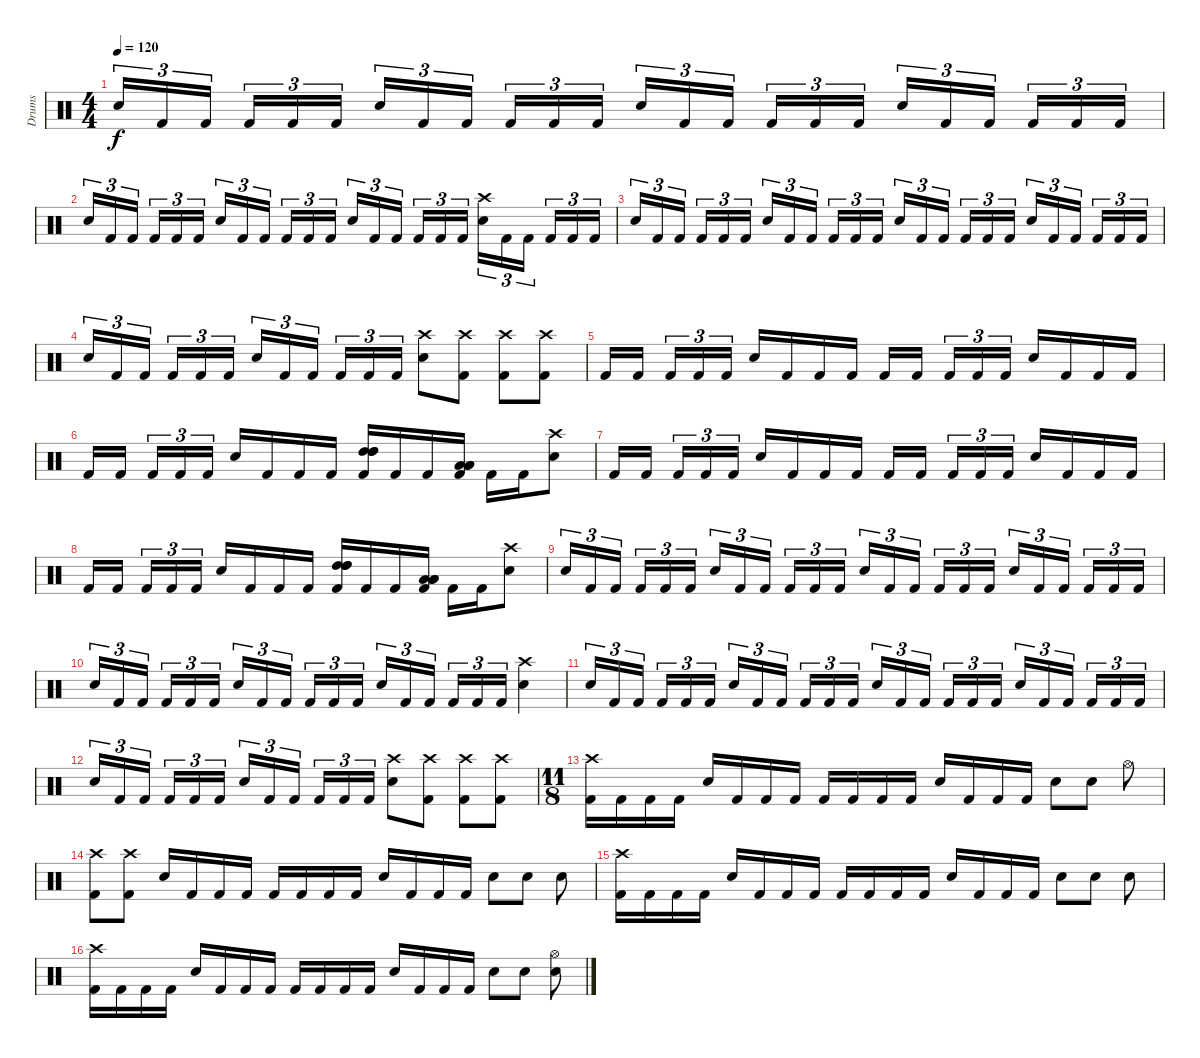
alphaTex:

\track ("Drums" "Drums") {instrument percussion}
\staff {score}
\articulation defaults
\ts (4 4)
\tempo 120
\clef neutral
\ks c "Electric Snare (hit)".16{tu (3 2) dy f} "Kick (hit) 2".16{tu (3 2)} "Kick (hit) 2".16{tu (3 2) beam splitsecondary} "Kick (hit) 2".16{tu (3 2)} "Kick (hit) 2".16{tu (3 2)} "Kick (hit) 2".16{tu (3 2)} "Electric Snare (hit)".16{tu (3 2)} "Kick (hit) 2".16{tu (3 2)} "Kick (hit) 2".16{tu (3 2) beam splitsecondary} "Kick (hit) 2".16{tu (3 2)} "Kick (hit) 2".16{tu (3 2)} "Kick (hit) 2".16{tu (3 2)} "Electric Snare (hit)".16{tu (3 2)} "Kick (hit) 2".16{tu (3 2)} "Kick (hit) 2".16{tu (3 2) beam splitsecondary} "Kick (hit) 2".16{tu (3 2)} "Kick (hit) 2".16{tu (3 2)} "Kick (hit) 2".16{tu (3 2)} "Electric Snare (hit)".16{tu (3 2)} "Kick (hit) 2".16{tu (3 2)} "Kick (hit) 2".16{tu (3 2) beam splitsecondary} "Kick (hit) 2".16{tu (3 2)} "Kick (hit) 2".16{tu (3 2)} "Kick (hit) 2".16{tu (3 2)}
|
"Electric Snare (hit)".16{tu (3 2)} "Kick (hit) 2".16{tu (3 2)} "Kick (hit) 2".16{tu (3 2) beam splitsecondary} "Kick (hit) 2".16{tu (3 2)} "Kick (hit) 2".16{tu (3 2)} "Kick (hit) 2".16{tu (3 2)} "Electric Snare (hit)".16{tu (3 2)} "Kick (hit) 2".16{tu (3 2)} "Kick (hit) 2".16{tu (3 2) beam splitsecondary} "Kick (hit) 2".16{tu (3 2)} "Kick (hit) 2".16{tu (3 2)} "Kick (hit) 2".16{tu (3 2)} "Electric Snare (hit)".16{tu (3 2)} "Kick (hit) 2".16{tu (3 2)} "Kick (hit) 2".16{tu (3 2) beam splitsecondary} "Kick (hit) 2".16{tu (3 2)} "Kick (hit) 2".16{tu (3 2)} "Kick (hit) 2".16{tu (3 2)} ("Crash high (hit)" "Electric Snare (hit)").16{tu (3 2)} "Kick (hit) 2".16{tu (3 2)} "Kick (hit) 2".16{tu (3 2) beam splitsecondary} "Kick (hit) 2".16{tu (3 2)} "Kick (hit) 2".16{tu (3 2)} "Kick (hit) 2".16{tu (3 2)} |
"Electric Snare (hit)".16{tu (3 2)} "Kick (hit) 2".16{tu (3 2)} "Kick (hit) 2".16{tu (3 2) beam splitsecondary} "Kick (hit) 2".16{tu (3 2)} "Kick (hit) 2".16{tu (3 2)} "Kick (hit) 2".16{tu (3 2)} "Electric Snare (hit)".16{tu (3 2)} "Kick (hit) 2".16{tu (3 2)} "Kick (hit) 2".16{tu (3 2) beam splitsecondary} "Kick (hit) 2".16{tu (3 2)} "Kick (hit) 2".16{tu (3 2)} "Kick (hit) 2".16{tu (3 2)} "Electric Snare (hit)".16{tu (3 2)} "Kick (hit) 2".16{tu (3 2)} "Kick (hit) 2".16{tu (3 2) beam splitsecondary} "Kick (hit) 2".16{tu (3 2)} "Kick (hit) 2".16{tu (3 2)} "Kick (hit) 2".16{tu (3 2)} "Electric Snare (hit)".16{tu (3 2)} "Kick (hit) 2".16{tu (3 2)} "Kick (hit) 2".16{tu (3 2) beam splitsecondary} "Kick (hit) 2".16{tu (3 2)} "Kick (hit) 2".16{tu (3 2)} "Kick (hit) 2".16{tu (3 2)} |
"Electric Snare (hit)".16{tu (3 2)} "Kick (hit) 2".16{tu (3 2)} "Kick (hit) 2".16{tu (3 2) beam splitsecondary} "Kick (hit) 2".16{tu (3 2)} "Kick (hit) 2".16{tu (3 2)} "Kick (hit) 2".16{tu (3 2)} "Electric Snare (hit)".16{tu (3 2)} "Kick (hit) 2".16{tu (3 2)} "Kick (hit) 2".16{tu (3 2) beam splitsecondary} "Kick (hit) 2".16{tu (3 2)} "Kick (hit) 2".16{tu (3 2)} "Kick (hit) 2".16{tu (3 2)} ("Crash high (hit)" "Electric Snare (hit)").8 ("Crash high (hit)" "Kick (hit) 2").8 ("Crash high (hit)" "Kick (hit) 2").8 ("Crash high (hit)" "Kick (hit) 2").8 |
"Kick (hit) 2".16 "Kick (hit) 2".16{beam splitsecondary} "Kick (hit) 2".16{tu (3 2)} "Kick (hit) 2".16{tu (3 2)} "Kick (hit) 2".16{tu (3 2)} "Electric Snare (hit)".16 "Kick (hit) 2".16 "Kick (hit) 2".16 "Kick (hit) 2".16 "Kick (hit) 2".16 "Kick (hit) 2".16{beam splitsecondary} "Kick (hit) 2".16{tu (3 2)} "Kick (hit) 2".16{tu (3 2)} "Kick (hit) 2".16{tu (3 2)} "Electric Snare (hit)".16 "Kick (hit) 2".16 "Kick (hit) 2".16 "Kick (hit) 2".16 |
"Kick (hit) 2".16 "Kick (hit) 2".16{beam splitsecondary} "Kick (hit) 2".16{tu (3 2)} "Kick (hit) 2".16{tu (3 2)} "Kick (hit) 2".16{tu (3 2)} "Electric Snare (hit)".16 "Kick (hit) 2".16 "Kick (hit) 2".16 "Kick (hit) 2".16 ("High Tom (hit)" "High Tom (hit)" "High Tom (hit)" "Kick (hit) 2").16 "Kick (hit) 2".16 "Kick (hit) 2".16 ("Low Tom (hit)" "Low Tom (hit)" "Low Tom (hit)" "Kick (hit) 2").16 "Kick (hit) 2".16 "Kick (hit) 2".16 ("Crash high (hit)" "Electric Snare (hit)").8 |
"Kick (hit) 2".16 "Kick (hit) 2".16{beam splitsecondary} "Kick (hit) 2".16{tu (3 2)} "Kick (hit) 2".16{tu (3 2)} "Kick (hit) 2".16{tu (3 2)} "Electric Snare (hit)".16 "Kick (hit) 2".16 "Kick (hit) 2".16 "Kick (hit) 2".16 "Kick (hit) 2".16 "Kick (hit) 2".16{beam splitsecondary} "Kick (hit) 2".16{tu (3 2)} "Kick (hit) 2".16{tu (3 2)} "Kick (hit) 2".16{tu (3 2)} "Electric Snare (hit)".16 "Kick (hit) 2".16 "Kick (hit) 2".16 "Kick (hit) 2".16 |
"Kick (hit) 2".16 "Kick (hit) 2".16{beam splitsecondary} "Kick (hit) 2".16{tu (3 2)} "Kick (hit) 2".16{tu (3 2)} "Kick (hit) 2".16{tu (3 2)} "Electric Snare (hit)".16 "Kick (hit) 2".16 "Kick (hit) 2".16 "Kick (hit) 2".16 ("High Tom (hit)" "High Tom (hit)" "High Tom (hit)" "Kick (hit) 2").16 "Kick (hit) 2".16 "Kick (hit) 2".16 ("Low Tom (hit)" "Low Tom (hit)" "Low Tom (hit)" "Kick (hit) 2").16 "Kick (hit) 2".16 "Kick (hit) 2".16 ("Crash high (hit)" "Electric Snare (hit)").8 |
"Electric Snare (hit)".16{tu (3 2)} "Kick (hit) 2".16{tu (3 2)} "Kick (hit) 2".16{tu (3 2) beam splitsecondary} "Kick (hit) 2".16{tu (3 2)} "Kick (hit) 2".16{tu (3 2)} "Kick (hit) 2".16{tu (3 2)} "Electric Snare (hit)".16{tu (3 2)} "Kick (hit) 2".16{tu (3 2)} "Kick (hit) 2".16{tu (3 2) beam splitsecondary} "Kick (hit) 2".16{tu (3 2)} "Kick (hit) 2".16{tu (3 2)} "Kick (hit) 2".16{tu (3 2)} "Electric Snare (hit)".16{tu (3 2)} "Kick (hit) 2".16{tu (3 2)} "Kick (hit) 2".16{tu (3 2) beam splitsecondary} "Kick (hit) 2".16{tu (3 2)} "Kick (hit) 2".16{tu (3 2)} "Kick (hit) 2".16{tu (3 2)} "Electric Snare (hit)".16{tu (3 2)} "Kick (hit) 2".16{tu (3 2)} "Kick (hit) 2".16{tu (3 2) beam splitsecondary} "Kick (hit) 2".16{tu (3 2)} "Kick (hit) 2".16{tu (3 2)} "Kick (hit) 2".16{tu (3 2)} |
"Electric Snare (hit)".16{tu (3 2)} "Kick (hit) 2".16{tu (3 2)} "Kick (hit) 2".16{tu (3 2) beam splitsecondary} "Kick (hit) 2".16{tu (3 2)} "Kick (hit) 2".16{tu (3 2)} "Kick (hit) 2".16{tu (3 2)} "Electric Snare (hit)".16{tu (3 2)} "Kick (hit) 2".16{tu (3 2)} "Kick (hit) 2".16{tu (3 2) beam splitsecondary} "Kick (hit) 2".16{tu (3 2)} "Kick (hit) 2".16{tu (3 2)} "Kick (hit) 2".16{tu (3 2)} "Electric Snare (hit)".16{tu (3 2)} "Kick (hit) 2".16{tu (3 2)} "Kick (hit) 2".16{tu (3 2) beam splitsecondary} "Kick (hit) 2".16{tu (3 2)} "Kick (hit) 2".16{tu (3 2)} "Kick (hit) 2".16{tu (3 2)} ("Crash high (hit)" "Electric Snare (hit)").4 |
"Electric Snare (hit)".16{tu (3 2)} "Kick (hit) 2".16{tu (3 2)} "Kick (hit) 2".16{tu (3 2) beam splitsecondary} "Kick (hit) 2".16{tu (3 2)} "Kick (hit) 2".16{tu (3 2)} "Kick (hit) 2".16{tu (3 2)} "Electric Snare (hit)".16{tu (3 2)} "Kick (hit) 2".16{tu (3 2)} "Kick (hit) 2".16{tu (3 2) beam splitsecondary} "Kick (hit) 2".16{tu (3 2)} "Kick (hit) 2".16{tu (3 2)} "Kick (hit) 2".16{tu (3 2)} "Electric Snare (hit)".16{tu (3 2)} "Kick (hit) 2".16{tu (3 2)} "Kick (hit) 2".16{tu (3 2) beam splitsecondary} "Kick (hit) 2".16{tu (3 2)} "Kick (hit) 2".16{tu (3 2)} "Kick (hit) 2".16{tu (3 2)} "Electric Snare (hit)".16{tu (3 2)} "Kick (hit) 2".16{tu (3 2)} "Kick (hit) 2".16{tu (3 2) beam splitsecondary} "Kick (hit) 2".16{tu (3 2)} "Kick (hit) 2".16{tu (3 2)} "Kick (hit) 2".16{tu (3 2)} |
"Electric Snare (hit)".16{tu (3 2)} "Kick (hit) 2".16{tu (3 2)} "Kick (hit) 2".16{tu (3 2) beam splitsecondary} "Kick (hit) 2".16{tu (3 2)} "Kick (hit) 2".16{tu (3 2)} "Kick (hit) 2".16{tu (3 2)} "Electric Snare (hit)".16{tu (3 2)} "Kick (hit) 2".16{tu (3 2)} "Kick (hit) 2".16{tu (3 2) beam splitsecondary} "Kick (hit) 2".16{tu (3 2)} "Kick (hit) 2".16{tu (3 2)} "Kick (hit) 2".16{tu (3 2)} ("Crash high (hit)" "Electric Snare (hit)").8 ("Crash high (hit)" "Kick (hit) 2").8 ("Crash high (hit)" "Kick (hit) 2").8 ("Crash high (hit)" "Kick (hit) 2").8 |
\ts (11 8)
("Crash high (hit)" "Kick (hit) 2").16 "Kick (hit) 2".16 "Kick (hit) 2".16 "Kick (hit) 2".16 "Electric Snare (hit)".16 "Kick (hit) 2".16 "Kick (hit) 2".16 "Kick (hit) 2".16 "Kick (hit) 2".16 "Kick (hit) 2".16 "Kick (hit) 2".16 "Kick (hit) 2".16 "Electric Snare (hit)".16 "Kick (hit) 2".16 "Kick (hit) 2".16 "Kick (hit) 2".16 "Electric Snare (hit)".8 "Electric Snare (hit)".8 "Hi-Hat (open)".8 |
("Crash high (hit)" "Kick (hit) 2").8 ("Crash high (hit)" "Kick (hit) 2").8 "Electric Snare (hit)".16 "Kick (hit) 2".16 "Kick (hit) 2".16 "Kick (hit) 2".16 "Kick (hit) 2".16 "Kick (hit) 2".16 "Kick (hit) 2".16 "Kick (hit) 2".16 "Electric Snare (hit)".16 "Kick (hit) 2".16 "Kick (hit) 2".16 "Kick (hit) 2".16 "Electric Snare (hit)".8 "Electric Snare (hit)".8 "Electric Snare (hit)".8 |
("Crash high (hit)" "Kick (hit) 2").16 "Kick (hit) 2".16 "Kick (hit) 2".16 "Kick (hit) 2".16 "Electric Snare (hit)".16 "Kick (hit) 2".16 "Kick (hit) 2".16 "Kick (hit) 2".16 "Kick (hit) 2".16 "Kick (hit) 2".16 "Kick (hit) 2".16 "Kick (hit) 2".16 "Electric Snare (hit)".16 "Kick (hit) 2".16 "Kick (hit) 2".16 "Kick (hit) 2".16 "Electric Snare (hit)".8 "Electric Snare (hit)".8 "Electric Snare (hit)".8 |
("Crash high (hit)" "Kick (hit) 2").16 "Kick (hit) 2".16 "Kick (hit) 2".16 "Kick (hit) 2".16 "Electric Snare (hit)".16 "Kick (hit) 2".16 "Kick (hit) 2".16 "Kick (hit) 2".16 "Kick (hit) 2".16 "Kick (hit) 2".16 "Kick (hit) 2".16 "Kick (hit) 2".16 "Electric Snare (hit)".16 "Kick (hit) 2".16 "Kick (hit) 2".16 "Kick (hit) 2".16 "Electric Snare (hit)".8 "Electric Snare (hit)".8 ("Hi-Hat (open)" "Electric Snare (hit)").8
